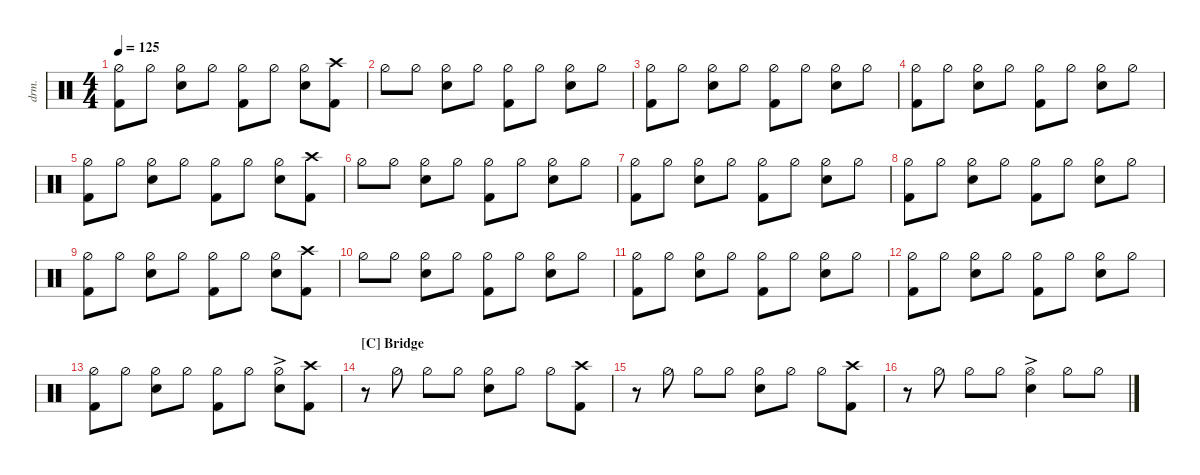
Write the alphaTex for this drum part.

\defaultSystemsLayout 4
\hideDynamics
\bracketExtendMode nobrackets
\otherSystemsTrackNameOrientation horizontal
\track ("Drums" "drm.") {defaultSystemsLayout 4 multiBarRest instrument percussion}
\staff
\articulation defaults
\ts (4 4)
\tempo 125
\clef neutral
\ks c
("Hi-Hat (half)" "Kick (hit) 2").8{dy f} "Hi-Hat (half)".8 ("Hi-Hat (half)" "Snare (hit) 2").8 "Hi-Hat (half)".8 ("Hi-Hat (half)" "Kick (hit) 2").8 "Hi-Hat (half)".8 ("Hi-Hat (half)" "Snare (hit) 2").8 ("Kick (hit) 2" "Crash high (hit)").8 |
"Hi-Hat (half)".8 "Hi-Hat (half)".8 ("Hi-Hat (half)" "Snare (hit) 2").8 "Hi-Hat (half)".8 ("Hi-Hat (half)" "Kick (hit) 2").8 "Hi-Hat (half)".8 ("Hi-Hat (half)" "Snare (hit) 2").8 "Hi-Hat (half)".8 |
("Hi-Hat (half)" "Kick (hit) 2").8 "Hi-Hat (half)".8 ("Hi-Hat (half)" "Snare (hit) 2").8 "Hi-Hat (half)".8 ("Hi-Hat (half)" "Kick (hit) 2").8 "Hi-Hat (half)".8 ("Hi-Hat (half)" "Snare (hit) 2").8 "Hi-Hat (half)".8 |
("Hi-Hat (half)" "Kick (hit) 2").8 "Hi-Hat (half)".8 ("Hi-Hat (half)" "Snare (hit) 2").8 "Hi-Hat (half)".8 ("Hi-Hat (half)" "Kick (hit) 2").8 "Hi-Hat (half)".8 ("Hi-Hat (half)" "Snare (hit) 2").8 "Hi-Hat (half)".8 |
("Hi-Hat (half)" "Kick (hit) 2").8 "Hi-Hat (half)".8 ("Hi-Hat (half)" "Snare (hit) 2").8 "Hi-Hat (half)".8 ("Hi-Hat (half)" "Kick (hit) 2").8 "Hi-Hat (half)".8 ("Hi-Hat (half)" "Snare (hit) 2").8 ("Kick (hit) 2" "Crash high (hit)").8 |
"Hi-Hat (half)".8 "Hi-Hat (half)".8 ("Hi-Hat (half)" "Snare (hit) 2").8 "Hi-Hat (half)".8 ("Hi-Hat (half)" "Kick (hit) 2").8 "Hi-Hat (half)".8 ("Hi-Hat (half)" "Snare (hit) 2").8 "Hi-Hat (half)".8 |
("Hi-Hat (half)" "Kick (hit) 2").8 "Hi-Hat (half)".8 ("Hi-Hat (half)" "Snare (hit) 2").8 "Hi-Hat (half)".8 ("Hi-Hat (half)" "Kick (hit) 2").8 "Hi-Hat (half)".8 ("Hi-Hat (half)" "Snare (hit) 2").8 "Hi-Hat (half)".8 |
("Hi-Hat (half)" "Kick (hit) 2").8 "Hi-Hat (half)".8 ("Hi-Hat (half)" "Snare (hit) 2").8 "Hi-Hat (half)".8 ("Hi-Hat (half)" "Kick (hit) 2").8 "Hi-Hat (half)".8 ("Hi-Hat (half)" "Snare (hit) 2").8 "Hi-Hat (half)".8 |
("Hi-Hat (half)" "Kick (hit) 2").8 "Hi-Hat (half)".8 ("Hi-Hat (half)" "Snare (hit) 2").8 "Hi-Hat (half)".8 ("Hi-Hat (half)" "Kick (hit) 2").8 "Hi-Hat (half)".8 ("Hi-Hat (half)" "Snare (hit) 2").8 ("Kick (hit) 2" "Crash high (hit)").8 |
"Hi-Hat (half)".8 "Hi-Hat (half)".8 ("Hi-Hat (half)" "Snare (hit) 2").8 "Hi-Hat (half)".8 ("Hi-Hat (half)" "Kick (hit) 2").8 "Hi-Hat (half)".8 ("Hi-Hat (half)" "Snare (hit) 2").8 "Hi-Hat (half)".8 |
("Hi-Hat (half)" "Kick (hit) 2").8 "Hi-Hat (half)".8 ("Hi-Hat (half)" "Snare (hit) 2").8 "Hi-Hat (half)".8 ("Hi-Hat (half)" "Kick (hit) 2").8 "Hi-Hat (half)".8 ("Hi-Hat (half)" "Snare (hit) 2").8 "Hi-Hat (half)".8 |
("Hi-Hat (half)" "Kick (hit) 2").8 "Hi-Hat (half)".8 ("Hi-Hat (half)" "Snare (hit) 2").8 "Hi-Hat (half)".8 ("Hi-Hat (half)" "Kick (hit) 2").8 "Hi-Hat (half)".8 ("Hi-Hat (half)" "Snare (hit) 2").8 "Hi-Hat (half)".8 |
("Hi-Hat (half)" "Kick (hit) 2").8 "Hi-Hat (half)".8 ("Hi-Hat (half)" "Snare (hit) 2").8 "Hi-Hat (half)".8 ("Hi-Hat (half)" "Kick (hit) 2").8 "Hi-Hat (half)".8 ("Hi-Hat (half)"{ac} "Snare (hit) 2").8 ("Kick (hit) 2" "Crash high (hit)").8 |
\section ("C" "Bridge")
r.8 "Hi-Hat (half)".8 "Hi-Hat (half)".8 "Hi-Hat (half)".8 ("Hi-Hat (half)" "Snare (hit) 2").8 "Hi-Hat (half)".8 "Hi-Hat (half)".8 ("Crash high (hit)" "Kick (hit) 2").8 |
r.8 "Hi-Hat (half)".8 "Hi-Hat (half)".8 "Hi-Hat (half)".8 ("Hi-Hat (half)" "Snare (hit) 2").8 "Hi-Hat (half)".8 "Hi-Hat (half)".8 ("Crash high (hit)" "Kick (hit) 2").8 |
r.8 "Hi-Hat (half)".8 "Hi-Hat (half)".8 "Hi-Hat (half)".8 ("Hi-Hat (open)"{ac} "Snare (hit) 2").4 "Hi-Hat (half)".8 "Hi-Hat (half)".8
